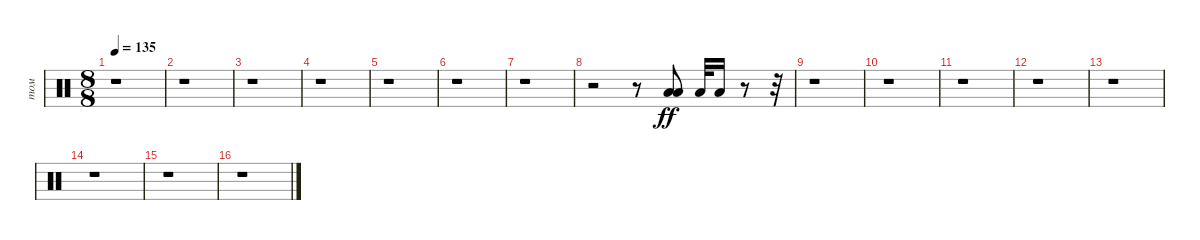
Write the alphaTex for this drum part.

\track ("том" "том") {instrument percussion}
\staff {score}
\articulation defaults
\ts (8 8)
\tempo 135
\clef neutral
\ks c
r.1{dy ff} |
r.1 |
r.1 |
r.1 |
r.1 |
r.1 |
r.1 |
r.2 r.8 ("Low Floor Tom (hit)" "Low Floor Tom (hit)").8 "Low Floor Tom (hit)".32 "Low Floor Tom (hit)".16 r.8 r.32 |
r.1 |
r.1 |
r.1 |
r.1 |
r.1 |
r.1 |
r.1 |
r.1
